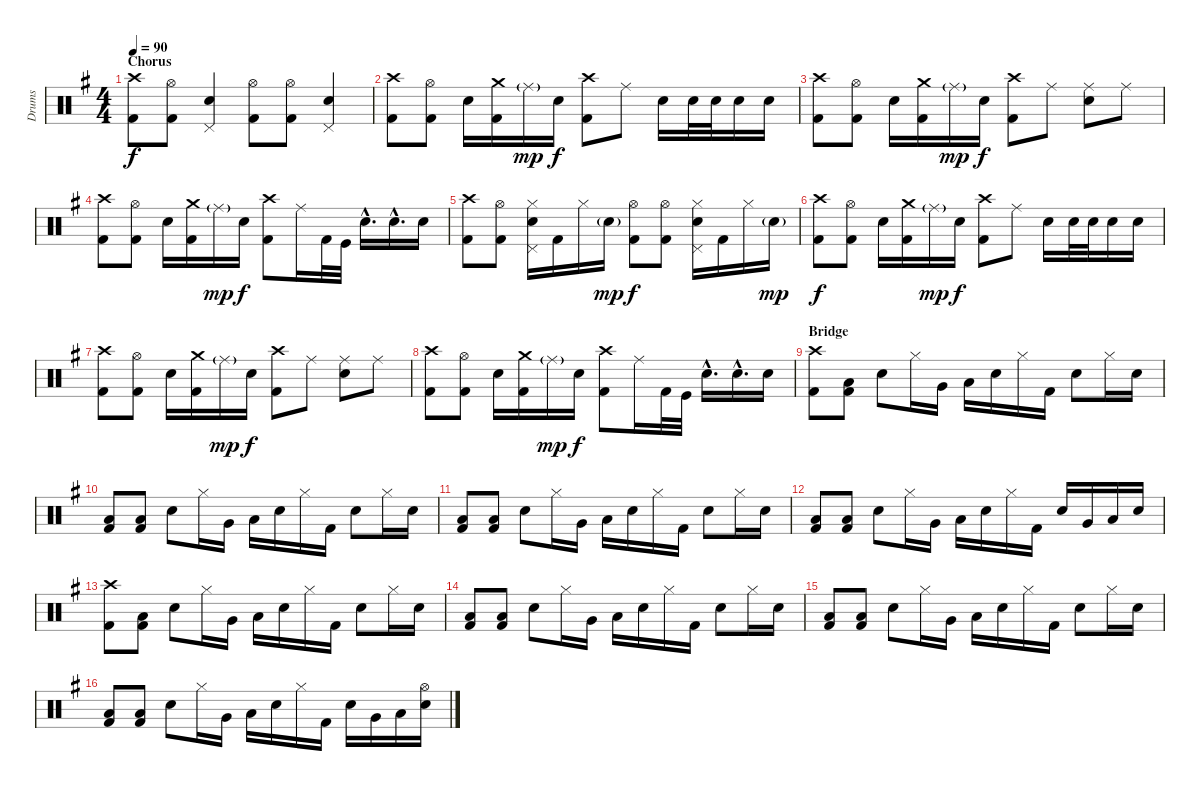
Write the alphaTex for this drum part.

\track ("Drums" "Drums") {instrument percussion}
\staff {score}
\articulation defaults
\ts (4 4)
\section ("" "Chorus")
\tempo 90
\clef neutral
\ks g
("Crash high (hit)" "Kick (hit) 2").8{dy f volume 13} ("Hi-Hat (open)" "Kick (hit) 2").8 ("Electric Snare (hit)" "Pedal Hi-Hat (hit)").4 ("Hi-Hat (open)" "Kick (hit) 2").8 ("Hi-Hat (open)" "Kick (hit) 2").8 ("Electric Snare (hit)" "Pedal Hi-Hat (hit)").4 |
("Crash high (hit)" "Kick (hit) 2").8 ("Hi-Hat (open)" "Kick (hit) 2").8 "Electric Snare (hit)".16 ("Crash medium (hit)" "Kick (hit) 2").16 "Ride (middle)"{g}.16{dy mp} "Electric Snare (hit)".16{dy f} ("Crash high (hit)" "Kick (hit) 2").8 "Ride (middle)".8 "Electric Snare (hit)".16 "Electric Snare (hit)".32 "Electric Snare (hit)".32 "Electric Snare (hit)".16 "Electric Snare (hit)".16 |
("Crash high (hit)" "Kick (hit) 2").8 ("Hi-Hat (open)" "Kick (hit) 2").8 "Electric Snare (hit)".16 ("Crash medium (hit)" "Kick (hit) 2").16 "Ride (middle)"{g}.16{dy mp} "Electric Snare (hit)".16{dy f} ("Crash high (hit)" "Kick (hit) 2").8 "Ride (middle)".8 ("Ride (middle)" "Electric Snare (hit)").8 "Ride (middle)".8 |
("Crash high (hit)" "Kick (hit) 2").8 ("Hi-Hat (open)" "Kick (hit) 2").8 "Electric Snare (hit)".16 ("Crash medium (hit)" "Kick (hit) 2").16 "Ride (middle)"{g}.16{dy mp} "Electric Snare (hit)".16{dy f} ("Crash high (hit)" "Kick (hit) 2").8 "Ride (middle)".16 "Kick (hit) 2".32{volume 16} "Kick (hit)".32 "Electric Snare (hit)"{hac}.16{d} "Electric Snare (hit)"{hac}.16{d} "Electric Snare (hit)".16 |
("Crash high (hit)" "Kick (hit) 2").8{volume 13} ("Hi-Hat (open)" "Kick (hit) 2").8 ("Hi-Hat (closed)" "Electric Snare (hit)" "Pedal Hi-Hat (hit)").16 "Kick (hit) 2".16 "Hi-Hat (closed)".16 "Electric Snare (hit)"{g}.16{dy mp} ("Hi-Hat (open)" "Kick (hit) 2").8{dy f} ("Hi-Hat (open)" "Kick (hit) 2").8 ("Hi-Hat (closed)" "Electric Snare (hit)" "Pedal Hi-Hat (hit)").16 "Kick (hit) 2".16 "Hi-Hat (closed)".16 "Electric Snare (hit)"{g}.16{dy mp} |
("Crash high (hit)" "Kick (hit) 2").8{dy f} ("Hi-Hat (open)" "Kick (hit) 2").8 "Electric Snare (hit)".16 ("Crash medium (hit)" "Kick (hit) 2").16 "Ride (middle)"{g}.16{dy mp} "Electric Snare (hit)".16{dy f} ("Crash high (hit)" "Kick (hit) 2").8 "Ride (middle)".8 "Electric Snare (hit)".16 "Electric Snare (hit)".32 "Electric Snare (hit)".32 "Electric Snare (hit)".16 "Electric Snare (hit)".16 |
("Crash high (hit)" "Kick (hit) 2").8 ("Hi-Hat (open)" "Kick (hit) 2").8 "Electric Snare (hit)".16 ("Crash medium (hit)" "Kick (hit) 2").16 "Ride (middle)"{g}.16{dy mp} "Electric Snare (hit)".16{dy f} ("Crash high (hit)" "Kick (hit) 2").8 "Ride (middle)".8 ("Ride (middle)" "Electric Snare (hit)").8 "Ride (middle)".8 |
("Crash high (hit)" "Kick (hit) 2").8 ("Hi-Hat (open)" "Kick (hit) 2").8 "Electric Snare (hit)".16 ("Crash medium (hit)" "Kick (hit) 2").16 "Ride (middle)"{g}.16{dy mp} "Electric Snare (hit)".16{dy f} ("Crash high (hit)" "Kick (hit) 2").8 "Ride (middle)".16 "Kick (hit) 2".32{volume 16} "Kick (hit)".32 "Electric Snare (hit)"{hac}.16{d} "Electric Snare (hit)"{hac}.16{d} "Electric Snare (hit)".16 |
\section ("" "Bridge")
("Crash high (hit)" "Kick (hit) 2").8{volume 13} ("Low Floor Tom (hit)" "Kick (hit) 2").8 "Electric Snare (hit)".8 "Hi-Hat (closed)".16 "Very Low Tom (hit)".16 "Low Floor Tom (hit)".16 "Electric Snare (hit)".16 "Hi-Hat (closed)".16 "Kick (hit) 2".16 "Electric Snare (hit)".8 "Hi-Hat (closed)".16 "Electric Snare (hit)".16 |
("Low Floor Tom (hit)" "Kick (hit) 2").8 ("Low Floor Tom (hit)" "Kick (hit) 2").8 "Electric Snare (hit)".8 "Hi-Hat (closed)".16 "Very Low Tom (hit)".16 "Low Floor Tom (hit)".16 "Electric Snare (hit)".16 "Hi-Hat (closed)".16 "Kick (hit) 2".16 "Electric Snare (hit)".8 "Hi-Hat (closed)".16 "Electric Snare (hit)".16 |
("Low Floor Tom (hit)" "Kick (hit) 2").8 ("Low Floor Tom (hit)" "Kick (hit) 2").8 "Electric Snare (hit)".8 "Hi-Hat (closed)".16 "Very Low Tom (hit)".16 "Low Floor Tom (hit)".16 "Electric Snare (hit)".16 "Hi-Hat (closed)".16 "Kick (hit) 2".16 "Electric Snare (hit)".8 "Hi-Hat (closed)".16 "Electric Snare (hit)".16 |
("Low Floor Tom (hit)" "Kick (hit) 2").8 ("Low Floor Tom (hit)" "Kick (hit) 2").8 "Electric Snare (hit)".8 "Hi-Hat (closed)".16 "Very Low Tom (hit)".16 "Low Floor Tom (hit)".16 "Electric Snare (hit)".16 "Hi-Hat (closed)".16 "Kick (hit) 2".16 "Electric Snare (hit)".16 "Very Low Tom (hit)".16 "Low Floor Tom (hit)".16 "Electric Snare (hit)".16 |
("Crash high (hit)" "Kick (hit) 2").8 ("Low Floor Tom (hit)" "Kick (hit) 2").8 "Electric Snare (hit)".8 "Hi-Hat (closed)".16 "Very Low Tom (hit)".16 "Low Floor Tom (hit)".16 "Electric Snare (hit)".16 "Hi-Hat (closed)".16 "Kick (hit) 2".16 "Electric Snare (hit)".8 "Hi-Hat (closed)".16 "Electric Snare (hit)".16 |
("Low Floor Tom (hit)" "Kick (hit) 2").8 ("Low Floor Tom (hit)" "Kick (hit) 2").8 "Electric Snare (hit)".8 "Hi-Hat (closed)".16 "Very Low Tom (hit)".16 "Low Floor Tom (hit)".16 "Electric Snare (hit)".16 "Hi-Hat (closed)".16 "Kick (hit) 2".16 "Electric Snare (hit)".8 "Hi-Hat (closed)".16 "Electric Snare (hit)".16 |
("Low Floor Tom (hit)" "Kick (hit) 2").8 ("Low Floor Tom (hit)" "Kick (hit) 2").8 "Electric Snare (hit)".8 "Hi-Hat (closed)".16 "Very Low Tom (hit)".16 "Low Floor Tom (hit)".16 "Electric Snare (hit)".16 "Hi-Hat (closed)".16 "Kick (hit) 2".16 "Electric Snare (hit)".8 "Hi-Hat (closed)".16 "Electric Snare (hit)".16 |
("Low Floor Tom (hit)" "Kick (hit) 2").8 ("Low Floor Tom (hit)" "Kick (hit) 2").8 "Electric Snare (hit)".8 "Hi-Hat (closed)".16 "Very Low Tom (hit)".16 "Low Floor Tom (hit)".16 "Electric Snare (hit)".16 "Hi-Hat (closed)".16 "Kick (hit) 2".16 "Electric Snare (hit)".16 "Very Low Tom (hit)".16 "Low Floor Tom (hit)".16 ("Hi-Hat (open)" "Electric Snare (hit)").16
